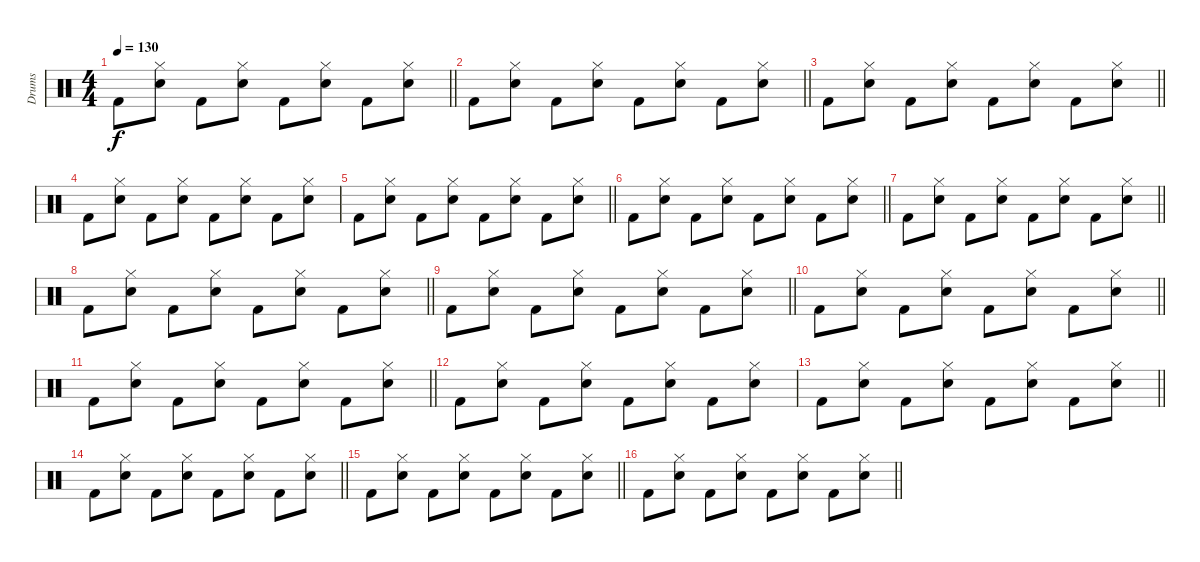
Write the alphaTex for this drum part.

\track ("Drums" "Drums") {instrument percussion}
\staff {score}
\articulation defaults
\ts (4 4)
\tempo 130
\clef neutral
\barLineRight lightlight
\ks c "Kick (hit) 2".8{dy f}
("Electric Snare (hit)" "Hi-Hat (closed)").8 "Kick (hit) 2".8 ("Electric Snare (hit)" "Hi-Hat (closed)").8 "Kick (hit) 2".8 ("Electric Snare (hit)" "Hi-Hat (closed)").8 "Kick (hit) 2".8 ("Electric Snare (hit)" "Hi-Hat (closed)").8 |
\barLineRight lightlight "Kick (hit) 2".8
("Electric Snare (hit)" "Hi-Hat (closed)").8 "Kick (hit) 2".8 ("Electric Snare (hit)" "Hi-Hat (closed)").8 "Kick (hit) 2".8 ("Electric Snare (hit)" "Hi-Hat (closed)").8 "Kick (hit) 2".8 ("Electric Snare (hit)" "Hi-Hat (closed)").8 |
\barLineRight lightlight "Kick (hit) 2".8
("Electric Snare (hit)" "Hi-Hat (closed)").8 "Kick (hit) 2".8 ("Electric Snare (hit)" "Hi-Hat (closed)").8 "Kick (hit) 2".8 ("Electric Snare (hit)" "Hi-Hat (closed)").8 "Kick (hit) 2".8 ("Electric Snare (hit)" "Hi-Hat (closed)").8 |
"Kick (hit) 2".8 ("Electric Snare (hit)" "Hi-Hat (closed)").8 "Kick (hit) 2".8 ("Electric Snare (hit)" "Hi-Hat (closed)").8 "Kick (hit) 2".8 ("Electric Snare (hit)" "Hi-Hat (closed)").8 "Kick (hit) 2".8 ("Electric Snare (hit)" "Hi-Hat (closed)").8 |
\barLineRight lightlight "Kick (hit) 2".8
("Electric Snare (hit)" "Hi-Hat (closed)").8 "Kick (hit) 2".8 ("Electric Snare (hit)" "Hi-Hat (closed)").8 "Kick (hit) 2".8 ("Electric Snare (hit)" "Hi-Hat (closed)").8 "Kick (hit) 2".8 ("Electric Snare (hit)" "Hi-Hat (closed)").8 |
\barLineRight lightlight "Kick (hit) 2".8
("Electric Snare (hit)" "Hi-Hat (closed)").8 "Kick (hit) 2".8 ("Electric Snare (hit)" "Hi-Hat (closed)").8 "Kick (hit) 2".8 ("Electric Snare (hit)" "Hi-Hat (closed)").8 "Kick (hit) 2".8 ("Electric Snare (hit)" "Hi-Hat (closed)").8 |
\barLineRight lightlight "Kick (hit) 2".8
("Electric Snare (hit)" "Hi-Hat (closed)").8 "Kick (hit) 2".8 ("Electric Snare (hit)" "Hi-Hat (closed)").8 "Kick (hit) 2".8 ("Electric Snare (hit)" "Hi-Hat (closed)").8 "Kick (hit) 2".8 ("Electric Snare (hit)" "Hi-Hat (closed)").8 |
\barLineRight lightlight "Kick (hit) 2".8
("Electric Snare (hit)" "Hi-Hat (closed)").8 "Kick (hit) 2".8 ("Electric Snare (hit)" "Hi-Hat (closed)").8 "Kick (hit) 2".8 ("Electric Snare (hit)" "Hi-Hat (closed)").8 "Kick (hit) 2".8 ("Electric Snare (hit)" "Hi-Hat (closed)").8 |
\barLineRight lightlight "Kick (hit) 2".8
("Electric Snare (hit)" "Hi-Hat (closed)").8 "Kick (hit) 2".8 ("Electric Snare (hit)" "Hi-Hat (closed)").8 "Kick (hit) 2".8 ("Electric Snare (hit)" "Hi-Hat (closed)").8 "Kick (hit) 2".8 ("Electric Snare (hit)" "Hi-Hat (closed)").8 |
\barLineRight lightlight "Kick (hit) 2".8
("Electric Snare (hit)" "Hi-Hat (closed)").8 "Kick (hit) 2".8 ("Electric Snare (hit)" "Hi-Hat (closed)").8 "Kick (hit) 2".8 ("Electric Snare (hit)" "Hi-Hat (closed)").8 "Kick (hit) 2".8 ("Electric Snare (hit)" "Hi-Hat (closed)").8 |
\barLineRight lightlight "Kick (hit) 2".8
("Electric Snare (hit)" "Hi-Hat (closed)").8 "Kick (hit) 2".8 ("Electric Snare (hit)" "Hi-Hat (closed)").8 "Kick (hit) 2".8 ("Electric Snare (hit)" "Hi-Hat (closed)").8 "Kick (hit) 2".8 ("Electric Snare (hit)" "Hi-Hat (closed)").8 |
"Kick (hit) 2".8 ("Electric Snare (hit)" "Hi-Hat (closed)").8 "Kick (hit) 2".8 ("Electric Snare (hit)" "Hi-Hat (closed)").8 "Kick (hit) 2".8 ("Electric Snare (hit)" "Hi-Hat (closed)").8 "Kick (hit) 2".8 ("Electric Snare (hit)" "Hi-Hat (closed)").8 |
\barLineRight lightlight "Kick (hit) 2".8
("Electric Snare (hit)" "Hi-Hat (closed)").8 "Kick (hit) 2".8 ("Electric Snare (hit)" "Hi-Hat (closed)").8 "Kick (hit) 2".8 ("Electric Snare (hit)" "Hi-Hat (closed)").8 "Kick (hit) 2".8 ("Electric Snare (hit)" "Hi-Hat (closed)").8 |
\barLineRight lightlight "Kick (hit) 2".8
("Electric Snare (hit)" "Hi-Hat (closed)").8 "Kick (hit) 2".8 ("Electric Snare (hit)" "Hi-Hat (closed)").8 "Kick (hit) 2".8 ("Electric Snare (hit)" "Hi-Hat (closed)").8 "Kick (hit) 2".8 ("Electric Snare (hit)" "Hi-Hat (closed)").8 |
\barLineRight lightlight "Kick (hit) 2".8
("Electric Snare (hit)" "Hi-Hat (closed)").8 "Kick (hit) 2".8 ("Electric Snare (hit)" "Hi-Hat (closed)").8 "Kick (hit) 2".8 ("Electric Snare (hit)" "Hi-Hat (closed)").8 "Kick (hit) 2".8 ("Electric Snare (hit)" "Hi-Hat (closed)").8 |
\barLineRight lightlight "Kick (hit) 2".8
("Electric Snare (hit)" "Hi-Hat (closed)").8 "Kick (hit) 2".8 ("Electric Snare (hit)" "Hi-Hat (closed)").8 "Kick (hit) 2".8 ("Electric Snare (hit)" "Hi-Hat (closed)").8 "Kick (hit) 2".8 ("Electric Snare (hit)" "Hi-Hat (closed)").8
